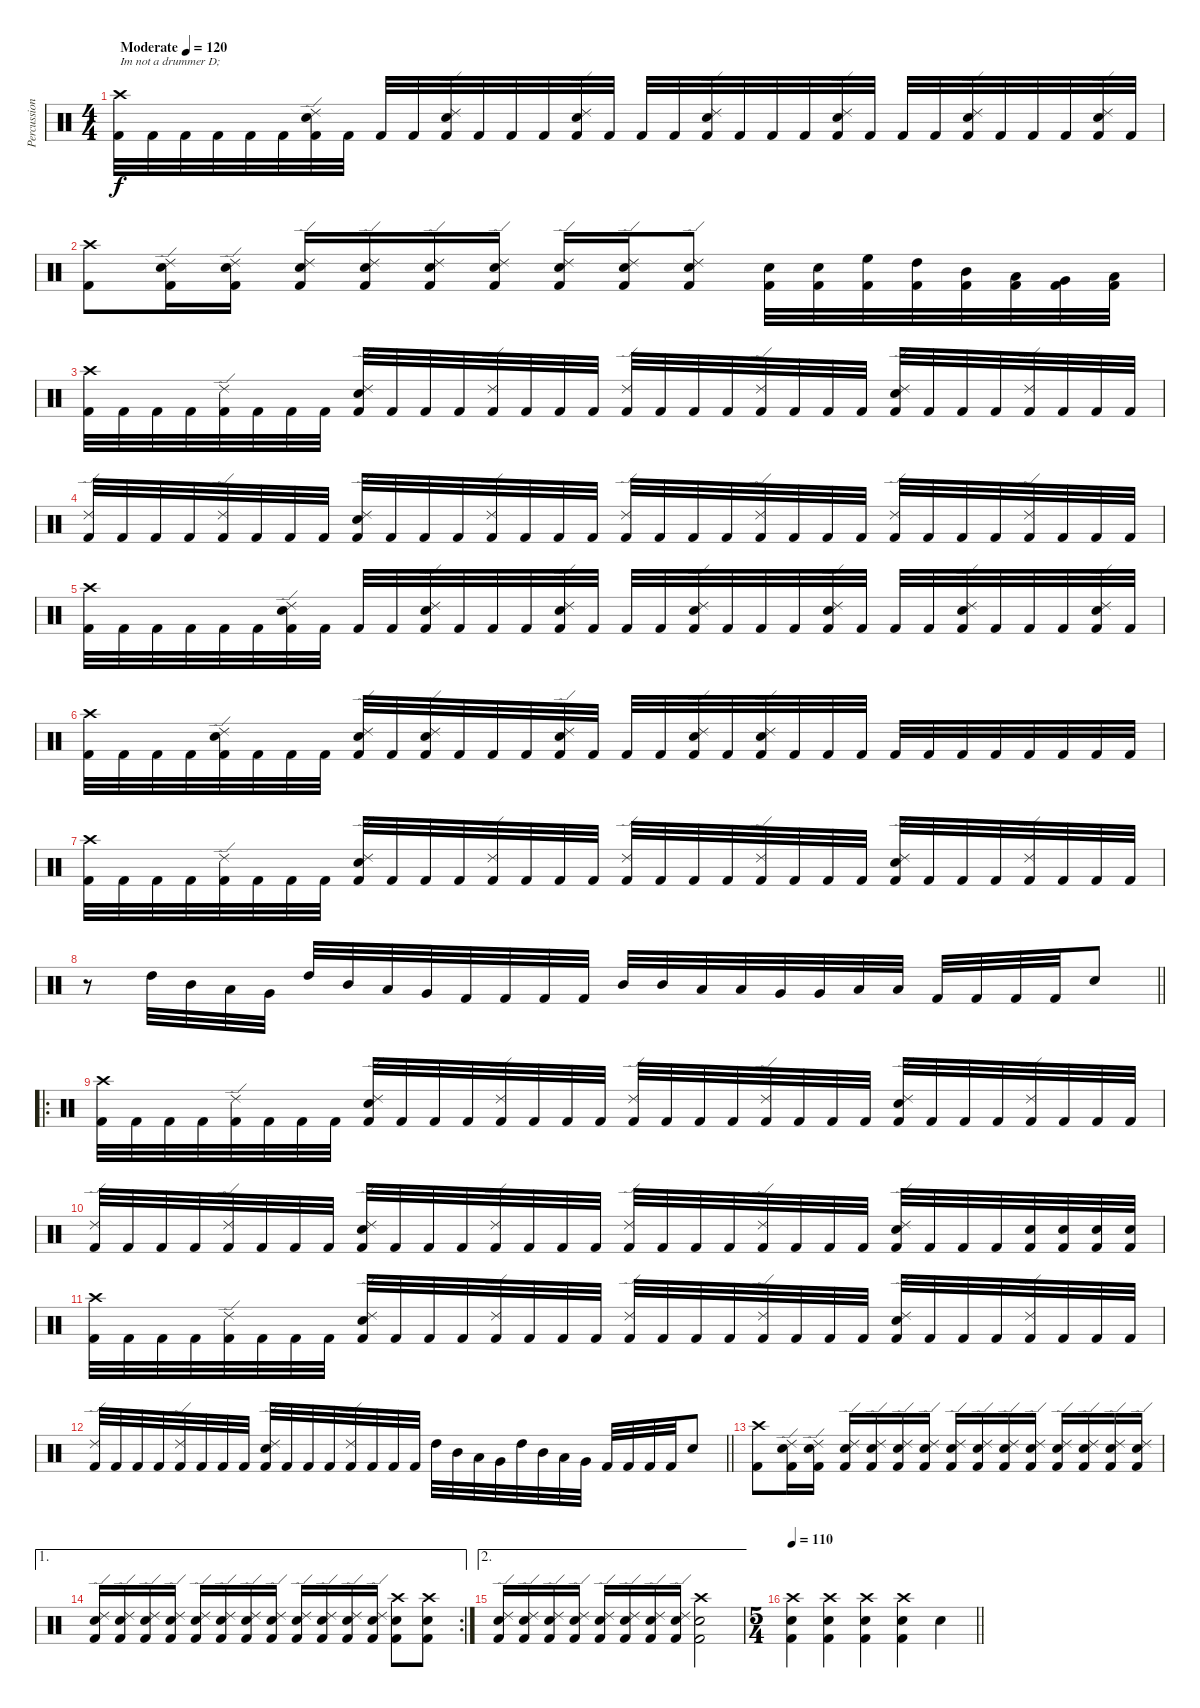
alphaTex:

\track ("Percussion" "Percussion") {instrument percussion}
\staff {score}
\articulation defaults
\ts (4 4)
\tempo (120 "Moderate")
\clef neutral
\ks c
("Crash high (hit)" "Kick (hit) 2").32{txt "Im not a drummer D;" dy f} "Kick (hit) 2".32 "Kick (hit) 2".32 "Kick (hit) 2".32 "Kick (hit) 2".32 "Kick (hit) 2".32 ("Ride (edge) 2" "Electric Snare (hit)" "Kick (hit) 2").32 "Kick (hit) 2".32 "Kick (hit) 2".32 "Kick (hit) 2".32 ("Ride (edge) 2" "Electric Snare (hit)" "Kick (hit) 2").32 "Kick (hit) 2".32 "Kick (hit) 2".32 "Kick (hit) 2".32 ("Ride (edge) 2" "Electric Snare (hit)" "Kick (hit) 2").32 "Kick (hit) 2".32 "Kick (hit) 2".32 "Kick (hit) 2".32 ("Ride (edge) 2" "Electric Snare (hit)" "Kick (hit) 2").32 "Kick (hit) 2".32 "Kick (hit) 2".32 "Kick (hit) 2".32 ("Ride (edge) 2" "Electric Snare (hit)" "Kick (hit) 2").32 "Kick (hit) 2".32 "Kick (hit) 2".32 "Kick (hit) 2".32 ("Ride (edge) 2" "Electric Snare (hit)" "Kick (hit) 2").32 "Kick (hit) 2".32 "Kick (hit) 2".32 "Kick (hit) 2".32 ("Ride (edge) 2" "Electric Snare (hit)" "Kick (hit) 2").32 "Kick (hit) 2".32 |
("Crash high (hit)" "Kick (hit) 2").8 ("Ride (edge) 2" "Electric Snare (hit)" "Kick (hit) 2").16 ("Ride (edge) 2" "Electric Snare (hit)" "Kick (hit) 2").16 ("Ride (edge) 2" "Electric Snare (hit)" "Kick (hit) 2").16 ("Ride (edge) 2" "Electric Snare (hit)" "Kick (hit) 2").16 ("Ride (edge) 2" "Electric Snare (hit)" "Kick (hit) 2").16 ("Ride (edge) 2" "Electric Snare (hit)" "Kick (hit) 2").16 ("Ride (edge) 2" "Electric Snare (hit)" "Kick (hit) 2").16 ("Ride (edge) 2" "Electric Snare (hit)" "Kick (hit) 2").16 ("Ride (edge) 2" "Electric Snare (hit)" "Kick (hit) 2").8 ("Electric Snare (hit)" "Kick (hit) 2").32 ("Electric Snare (hit)" "Kick (hit) 2").32 ("High Floor Tom (hit)" "Kick (hit) 2").32 ("High Tom (hit)" "Kick (hit) 2").32 ("Mid Tom (hit)" "Kick (hit) 2").32 ("Low Tom (hit)" "Kick (hit) 2").32 ("Very Low Tom (hit)" "Kick (hit) 2").32 ("Low Floor Tom (hit)" "Kick (hit) 2").32 |
("Crash high (hit)" "Kick (hit) 2").32 "Kick (hit) 2".32 "Kick (hit) 2".32 "Kick (hit) 2".32 ("Ride (edge) 2" "Kick (hit) 2").32 "Kick (hit) 2".32 "Kick (hit) 2".32 "Kick (hit) 2".32 ("Ride (edge) 2" "Electric Snare (hit)" "Kick (hit) 2").32 "Kick (hit) 2".32 "Kick (hit) 2".32 "Kick (hit) 2".32 ("Ride (edge) 2" "Kick (hit) 2").32 "Kick (hit) 2".32 "Kick (hit) 2".32 "Kick (hit) 2".32 ("Ride (edge) 2" "Kick (hit) 2").32 "Kick (hit) 2".32 "Kick (hit) 2".32 "Kick (hit) 2".32 ("Ride (edge) 2" "Kick (hit) 2").32 "Kick (hit) 2".32 "Kick (hit) 2".32 "Kick (hit) 2".32 ("Ride (edge) 2" "Electric Snare (hit)" "Kick (hit) 2").32 "Kick (hit) 2".32 "Kick (hit) 2".32 "Kick (hit) 2".32 ("Ride (edge) 2" "Kick (hit) 2").32 "Kick (hit) 2".32 "Kick (hit) 2".32 "Kick (hit) 2".32 |
("Ride (edge) 2" "Kick (hit) 2").32 "Kick (hit) 2".32 "Kick (hit) 2".32 "Kick (hit) 2".32 ("Ride (edge) 2" "Kick (hit) 2").32 "Kick (hit) 2".32 "Kick (hit) 2".32 "Kick (hit) 2".32 ("Ride (edge) 2" "Electric Snare (hit)" "Kick (hit) 2").32 "Kick (hit) 2".32 "Kick (hit) 2".32 "Kick (hit) 2".32 ("Ride (edge) 2" "Kick (hit) 2").32 "Kick (hit) 2".32 "Kick (hit) 2".32 "Kick (hit) 2".32 ("Ride (edge) 2" "Kick (hit) 2").32 "Kick (hit) 2".32 "Kick (hit) 2".32 "Kick (hit) 2".32 ("Ride (edge) 2" "Kick (hit) 2").32 "Kick (hit) 2".32 "Kick (hit) 2".32 "Kick (hit) 2".32 ("Ride (edge) 2" "Kick (hit) 2").32 "Kick (hit) 2".32 "Kick (hit) 2".32 "Kick (hit) 2".32 ("Ride (edge) 2" "Kick (hit) 2").32 "Kick (hit) 2".32 "Kick (hit) 2".32 "Kick (hit) 2".32 |
("Crash high (hit)" "Kick (hit) 2").32 "Kick (hit) 2".32 "Kick (hit) 2".32 "Kick (hit) 2".32 "Kick (hit) 2".32 "Kick (hit) 2".32 ("Ride (edge) 2" "Electric Snare (hit)" "Kick (hit) 2").32 "Kick (hit) 2".32 "Kick (hit) 2".32 "Kick (hit) 2".32 ("Ride (edge) 2" "Electric Snare (hit)" "Kick (hit) 2").32 "Kick (hit) 2".32 "Kick (hit) 2".32 "Kick (hit) 2".32 ("Ride (edge) 2" "Electric Snare (hit)" "Kick (hit) 2").32 "Kick (hit) 2".32 "Kick (hit) 2".32 "Kick (hit) 2".32 ("Ride (edge) 2" "Electric Snare (hit)" "Kick (hit) 2").32 "Kick (hit) 2".32 "Kick (hit) 2".32 "Kick (hit) 2".32 ("Ride (edge) 2" "Electric Snare (hit)" "Kick (hit) 2").32 "Kick (hit) 2".32 "Kick (hit) 2".32 "Kick (hit) 2".32 ("Ride (edge) 2" "Electric Snare (hit)" "Kick (hit) 2").32 "Kick (hit) 2".32 "Kick (hit) 2".32 "Kick (hit) 2".32 ("Ride (edge) 2" "Electric Snare (hit)" "Kick (hit) 2").32 "Kick (hit) 2".32 |
("Crash high (hit)" "Kick (hit) 2").32 "Kick (hit) 2".32 "Kick (hit) 2".32 "Kick (hit) 2".32 ("Ride (edge) 2" "Electric Snare (hit)" "Kick (hit) 2").32 "Kick (hit) 2".32 "Kick (hit) 2".32 "Kick (hit) 2".32 ("Ride (edge) 2" "Electric Snare (hit)" "Kick (hit) 2").32 "Kick (hit) 2".32 ("Ride (edge) 2" "Electric Snare (hit)" "Kick (hit) 2").32 "Kick (hit) 2".32 "Kick (hit) 2".32 "Kick (hit) 2".32 ("Ride (edge) 2" "Electric Snare (hit)" "Kick (hit) 2").32 "Kick (hit) 2".32 "Kick (hit) 2".32 "Kick (hit) 2".32 ("Ride (edge) 2" "Electric Snare (hit)" "Kick (hit) 2").32 "Kick (hit) 2".32 ("Ride (edge) 2" "Electric Snare (hit)" "Kick (hit) 2").32 "Kick (hit) 2".32 "Kick (hit) 2".32 "Kick (hit) 2".32 "Kick (hit) 2".32 "Kick (hit) 2".32 "Kick (hit) 2".32 "Kick (hit) 2".32 "Kick (hit) 2".32 "Kick (hit) 2".32 "Kick (hit) 2".32 "Kick (hit) 2".32 |
("Crash high (hit)" "Kick (hit) 2").32 "Kick (hit) 2".32 "Kick (hit) 2".32 "Kick (hit) 2".32 ("Ride (edge) 2" "Kick (hit) 2").32 "Kick (hit) 2".32 "Kick (hit) 2".32 "Kick (hit) 2".32 ("Ride (edge) 2" "Electric Snare (hit)" "Kick (hit) 2").32 "Kick (hit) 2".32 "Kick (hit) 2".32 "Kick (hit) 2".32 ("Ride (edge) 2" "Kick (hit) 2").32 "Kick (hit) 2".32 "Kick (hit) 2".32 "Kick (hit) 2".32 ("Ride (edge) 2" "Kick (hit) 2").32 "Kick (hit) 2".32 "Kick (hit) 2".32 "Kick (hit) 2".32 ("Ride (edge) 2" "Kick (hit) 2").32 "Kick (hit) 2".32 "Kick (hit) 2".32 "Kick (hit) 2".32 ("Ride (edge) 2" "Electric Snare (hit)" "Kick (hit) 2").32 "Kick (hit) 2".32 "Kick (hit) 2".32 "Kick (hit) 2".32 ("Ride (edge) 2" "Kick (hit) 2").32 "Kick (hit) 2".32 "Kick (hit) 2".32 "Kick (hit) 2".32 |
\barLineRight lightlight
r.8 "High Tom (hit)".32 "Mid Tom (hit)".32 "Low Tom (hit)".32 "Very Low Tom (hit)".32 "High Tom (hit)".32 "Mid Tom (hit)".32 "Low Tom (hit)".32 "Very Low Tom (hit)".32 "Kick (hit) 2".32 "Kick (hit) 2".32 "Kick (hit) 2".32 "Kick (hit) 2".32 "Mid Tom (hit)".32 "Mid Tom (hit)".32 "Low Tom (hit)".32 "Low Tom (hit)".32 "Very Low Tom (hit)".32 "Very Low Tom (hit)".32 "Low Floor Tom (hit)".32 "Low Floor Tom (hit)".32 "Kick (hit) 2".32 "Kick (hit) 2".32 "Kick (hit) 2".32 "Kick (hit) 2".32 "Electric Snare (hit)".8 |
\ro
\section ("" "")
("Crash high (hit)" "Kick (hit) 2").32 "Kick (hit) 2".32 "Kick (hit) 2".32 "Kick (hit) 2".32 ("Ride (edge) 2" "Kick (hit) 2").32 "Kick (hit) 2".32 "Kick (hit) 2".32 "Kick (hit) 2".32 ("Ride (edge) 2" "Electric Snare (hit)" "Kick (hit) 2").32 "Kick (hit) 2".32 "Kick (hit) 2".32 "Kick (hit) 2".32 ("Ride (edge) 2" "Kick (hit) 2").32 "Kick (hit) 2".32 "Kick (hit) 2".32 "Kick (hit) 2".32 ("Ride (edge) 2" "Kick (hit) 2").32 "Kick (hit) 2".32 "Kick (hit) 2".32 "Kick (hit) 2".32 ("Ride (edge) 2" "Kick (hit) 2").32 "Kick (hit) 2".32 "Kick (hit) 2".32 "Kick (hit) 2".32 ("Ride (edge) 2" "Electric Snare (hit)" "Kick (hit) 2").32 "Kick (hit) 2".32 "Kick (hit) 2".32 "Kick (hit) 2".32 ("Ride (edge) 2" "Kick (hit) 2").32 "Kick (hit) 2".32 "Kick (hit) 2".32 "Kick (hit) 2".32 |
("Ride (edge) 2" "Kick (hit) 2").32 "Kick (hit) 2".32 "Kick (hit) 2".32 "Kick (hit) 2".32 ("Ride (edge) 2" "Kick (hit) 2").32 "Kick (hit) 2".32 "Kick (hit) 2".32 "Kick (hit) 2".32 ("Ride (edge) 2" "Electric Snare (hit)" "Kick (hit) 2").32 "Kick (hit) 2".32 "Kick (hit) 2".32 "Kick (hit) 2".32 ("Ride (edge) 2" "Kick (hit) 2").32 "Kick (hit) 2".32 "Kick (hit) 2".32 "Kick (hit) 2".32 ("Ride (edge) 2" "Kick (hit) 2").32 "Kick (hit) 2".32 "Kick (hit) 2".32 "Kick (hit) 2".32 ("Ride (edge) 2" "Kick (hit) 2").32 "Kick (hit) 2".32 "Kick (hit) 2".32 "Kick (hit) 2".32 ("Ride (edge) 2" "Electric Snare (hit)" "Kick (hit) 2").32 "Kick (hit) 2".32 "Kick (hit) 2".32 "Kick (hit) 2".32 ("Electric Snare (hit)" "Kick (hit) 2").32 ("Electric Snare (hit)" "Kick (hit) 2").32 ("Electric Snare (hit)" "Kick (hit) 2").32 ("Electric Snare (hit)" "Kick (hit) 2").32 |
("Crash high (hit)" "Kick (hit) 2").32 "Kick (hit) 2".32 "Kick (hit) 2".32 "Kick (hit) 2".32 ("Ride (edge) 2" "Kick (hit) 2").32 "Kick (hit) 2".32 "Kick (hit) 2".32 "Kick (hit) 2".32 ("Ride (edge) 2" "Electric Snare (hit)" "Kick (hit) 2").32 "Kick (hit) 2".32 "Kick (hit) 2".32 "Kick (hit) 2".32 ("Ride (edge) 2" "Kick (hit) 2").32 "Kick (hit) 2".32 "Kick (hit) 2".32 "Kick (hit) 2".32 ("Ride (edge) 2" "Kick (hit) 2").32 "Kick (hit) 2".32 "Kick (hit) 2".32 "Kick (hit) 2".32 ("Ride (edge) 2" "Kick (hit) 2").32 "Kick (hit) 2".32 "Kick (hit) 2".32 "Kick (hit) 2".32 ("Ride (edge) 2" "Electric Snare (hit)" "Kick (hit) 2").32 "Kick (hit) 2".32 "Kick (hit) 2".32 "Kick (hit) 2".32 ("Ride (edge) 2" "Kick (hit) 2").32 "Kick (hit) 2".32 "Kick (hit) 2".32 "Kick (hit) 2".32 |
\barLineRight lightlight
("Ride (edge) 2" "Kick (hit) 2").32 "Kick (hit) 2".32 "Kick (hit) 2".32 "Kick (hit) 2".32 ("Ride (edge) 2" "Kick (hit) 2").32 "Kick (hit) 2".32 "Kick (hit) 2".32 "Kick (hit) 2".32 ("Ride (edge) 2" "Electric Snare (hit)" "Kick (hit) 2").32 "Kick (hit) 2".32 "Kick (hit) 2".32 "Kick (hit) 2".32 ("Ride (edge) 2" "Kick (hit) 2").32 "Kick (hit) 2".32 "Kick (hit) 2".32 "Kick (hit) 2".32 "High Tom (hit)".32 "Mid Tom (hit)".32 "Low Tom (hit)".32 "Very Low Tom (hit)".32 "High Tom (hit)".32 "Mid Tom (hit)".32 "Low Tom (hit)".32 "Very Low Tom (hit)".32 "Kick (hit) 2".32 "Kick (hit) 2".32 "Kick (hit) 2".32 "Kick (hit) 2".32 "Electric Snare (hit)".8 |
\section ("" "")
("Crash high (hit)" "Kick (hit) 2").8 ("Ride (edge) 2" "Electric Snare (hit)" "Kick (hit) 2").16 ("Ride (edge) 2" "Electric Snare (hit)" "Kick (hit) 2").16 ("Ride (edge) 2" "Electric Snare (hit)" "Kick (hit) 2").16 ("Ride (edge) 2" "Electric Snare (hit)" "Kick (hit) 2").16 ("Ride (edge) 2" "Electric Snare (hit)" "Kick (hit) 2").16 ("Ride (edge) 2" "Electric Snare (hit)" "Kick (hit) 2").16 ("Ride (edge) 2" "Electric Snare (hit)" "Kick (hit) 2").16 ("Ride (edge) 2" "Electric Snare (hit)" "Kick (hit) 2").16 ("Ride (edge) 2" "Electric Snare (hit)" "Kick (hit) 2").16 ("Ride (edge) 2" "Electric Snare (hit)" "Kick (hit) 2").16 ("Ride (edge) 2" "Electric Snare (hit)" "Kick (hit) 2").16 ("Ride (edge) 2" "Electric Snare (hit)" "Kick (hit) 2").16 ("Ride (edge) 2" "Electric Snare (hit)" "Kick (hit) 2").16 ("Ride (edge) 2" "Electric Snare (hit)" "Kick (hit) 2").16 |
\ae 1
\rc 2
("Ride (edge) 2" "Electric Snare (hit)" "Kick (hit) 2").16 ("Ride (edge) 2" "Electric Snare (hit)" "Kick (hit) 2").16 ("Ride (edge) 2" "Electric Snare (hit)" "Kick (hit) 2").16 ("Ride (edge) 2" "Electric Snare (hit)" "Kick (hit) 2").16 ("Ride (edge) 2" "Electric Snare (hit)" "Kick (hit) 2").16 ("Ride (edge) 2" "Electric Snare (hit)" "Kick (hit) 2").16 ("Ride (edge) 2" "Electric Snare (hit)" "Kick (hit) 2").16 ("Ride (edge) 2" "Electric Snare (hit)" "Kick (hit) 2").16 ("Ride (edge) 2" "Electric Snare (hit)" "Kick (hit) 2").16 ("Ride (edge) 2" "Electric Snare (hit)" "Kick (hit) 2").16 ("Ride (edge) 2" "Electric Snare (hit)" "Kick (hit) 2").16 ("Ride (edge) 2" "Electric Snare (hit)" "Kick (hit) 2").16 ("Crash high (hit)" "Electric Snare (hit)" "Kick (hit) 2").8 ("Crash high (hit)" "Electric Snare (hit)" "Kick (hit) 2").8 |
\ae 2
("Ride (edge) 2" "Electric Snare (hit)" "Kick (hit) 2").16 ("Ride (edge) 2" "Electric Snare (hit)" "Kick (hit) 2").16 ("Ride (edge) 2" "Electric Snare (hit)" "Kick (hit) 2").16 ("Ride (edge) 2" "Electric Snare (hit)" "Kick (hit) 2").16 ("Ride (edge) 2" "Electric Snare (hit)" "Kick (hit) 2").16 ("Ride (edge) 2" "Electric Snare (hit)" "Kick (hit) 2").16 ("Ride (edge) 2" "Electric Snare (hit)" "Kick (hit) 2").16 ("Ride (edge) 2" "Electric Snare (hit)" "Kick (hit) 2").16 ("Crash high (hit)" "Electric Snare (hit)" "Kick (hit) 2").2 |
\ts (5 4)
\tempo 110
\barLineRight lightlight
("Crash high (hit)" "Electric Snare (hit)" "Kick (hit) 2").4 ("Crash high (hit)" "Electric Snare (hit)" "Kick (hit) 2").4 ("Crash high (hit)" "Electric Snare (hit)" "Kick (hit) 2").4 ("Crash high (hit)" "Electric Snare (hit)" "Kick (hit) 2").4 "Electric Snare (hit)".4
